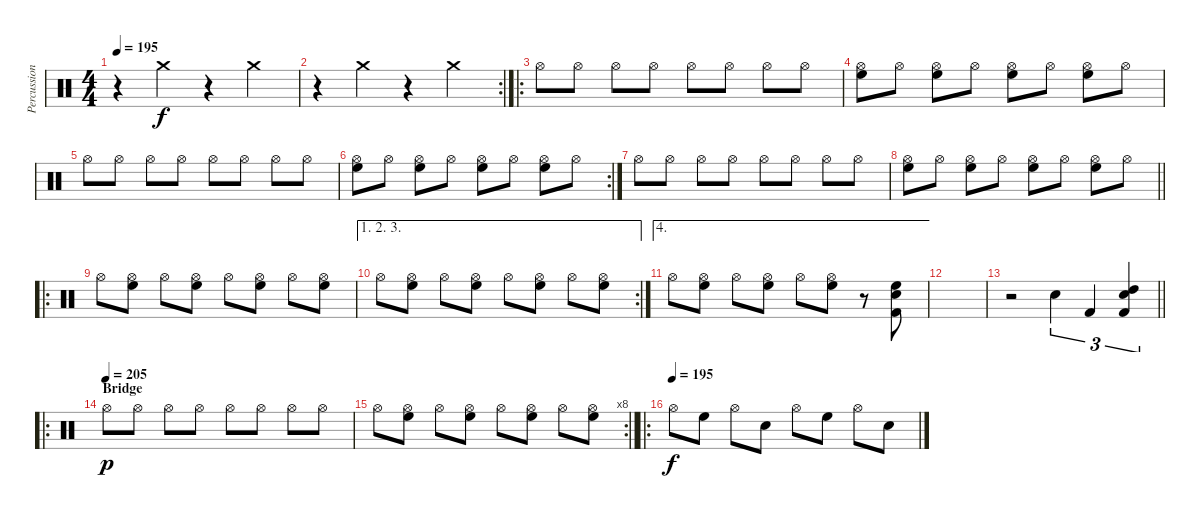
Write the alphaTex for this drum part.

\track ("Percussion" "Percussion") {instrument percussion}
\staff {score}
\articulation defaults
\ts (4 4)
\tempo 195
\clef neutral
\ks c
r.4{dy f} "Crash medium (hit)".4 r.4 "Crash medium (hit)".4 |
\rc 2
r.4 "Crash medium (hit)".4 r.4 "Crash medium (hit)".4 |
\ro "Hi-Hat (open)".8 "Hi-Hat (open)".8 "Hi-Hat (open)".8 "Hi-Hat (open)".8 "Hi-Hat (open)".8 "Hi-Hat (open)".8 "Hi-Hat (open)".8 "Hi-Hat (open)".8
|
("High Floor Tom (hit)" "Hi-Hat (open)").8 "Hi-Hat (open)".8 ("High Floor Tom (hit)" "Hi-Hat (open)").8 "Hi-Hat (open)".8 ("High Floor Tom (hit)" "Hi-Hat (open)").8 "Hi-Hat (open)".8 ("High Floor Tom (hit)" "Hi-Hat (open)").8 "Hi-Hat (open)".8 |
"Hi-Hat (open)".8 "Hi-Hat (open)".8 "Hi-Hat (open)".8 "Hi-Hat (open)".8 "Hi-Hat (open)".8 "Hi-Hat (open)".8 "Hi-Hat (open)".8 "Hi-Hat (open)".8 |
\rc 2
("High Floor Tom (hit)" "Hi-Hat (open)").8 "Hi-Hat (open)".8 ("High Floor Tom (hit)" "Hi-Hat (open)").8 "Hi-Hat (open)".8 ("High Floor Tom (hit)" "Hi-Hat (open)").8 "Hi-Hat (open)".8 ("High Floor Tom (hit)" "Hi-Hat (open)").8 "Hi-Hat (open)".8 |
"Hi-Hat (open)".8 "Hi-Hat (open)".8 "Hi-Hat (open)".8 "Hi-Hat (open)".8 "Hi-Hat (open)".8 "Hi-Hat (open)".8 "Hi-Hat (open)".8 "Hi-Hat (open)".8 |
\barLineRight lightlight
("High Floor Tom (hit)" "Hi-Hat (open)").8 "Hi-Hat (open)".8 ("High Floor Tom (hit)" "Hi-Hat (open)").8 "Hi-Hat (open)".8 ("High Floor Tom (hit)" "Hi-Hat (open)").8 "Hi-Hat (open)".8 ("High Floor Tom (hit)" "Hi-Hat (open)").8 "Hi-Hat (open)".8 |
\ro "Hi-Hat (open)".8
("High Floor Tom (hit)" "Hi-Hat (open)").8 "Hi-Hat (open)".8 ("High Floor Tom (hit)" "Hi-Hat (open)").8 "Hi-Hat (open)".8 ("High Floor Tom (hit)" "Hi-Hat (open)").8 "Hi-Hat (open)".8 ("High Floor Tom (hit)" "Hi-Hat (open)").8 |
\ae (1 2 3)
\rc 2 "Hi-Hat (open)".8
("High Floor Tom (hit)" "Hi-Hat (open)").8 "Hi-Hat (open)".8 ("High Floor Tom (hit)" "Hi-Hat (open)").8 "Hi-Hat (open)".8 ("High Floor Tom (hit)" "Hi-Hat (open)").8 "Hi-Hat (open)".8 ("High Floor Tom (hit)" "Hi-Hat (open)").8 |
\ae 4 "Hi-Hat (open)".8
("High Floor Tom (hit)" "Hi-Hat (open)").8 "Hi-Hat (open)".8 ("High Floor Tom (hit)" "Hi-Hat (open)").8 "Hi-Hat (open)".8 ("High Floor Tom (hit)" "Hi-Hat (open)").8 r.8 ("Kick (hit) 2" "Snare (hit) 2" "High Floor Tom (hit)").8 |
|
\barLineRight lightlight
r.2 "Snare (hit) 2".4{tu (3 2)} "Kick (hit) 2".4{tu (3 2)} ("Kick (hit) 2" "Snare (hit) 2" "High Tom (hit)").4{tu (3 2)} |
\ro
\section ("" "Bridge")
\tempo (205)
"Hi-Hat (open)".8{dy p} "Hi-Hat (open)".8 "Hi-Hat (open)".8 "Hi-Hat (open)".8 "Hi-Hat (open)".8 "Hi-Hat (open)".8 "Hi-Hat (open)".8 "Hi-Hat (open)".8 |
\rc 8
\barLineRight lightlight "Hi-Hat (open)".8
("High Floor Tom (hit)" "Hi-Hat (open)").8 "Hi-Hat (open)".8 ("High Floor Tom (hit)" "Hi-Hat (open)").8 "Hi-Hat (open)".8 ("High Floor Tom (hit)" "Hi-Hat (open)").8 "Hi-Hat (open)".8 ("High Floor Tom (hit)" "Hi-Hat (open)").8 |
\ro
\tempo (195)
"Hi-Hat (open)".8{dy f} "High Floor Tom (hit)".8 "Hi-Hat (open)".8 "Snare (hit) 2".8 "Hi-Hat (open)".8 "High Floor Tom (hit)".8 "Hi-Hat (open)".8 "Snare (hit) 2".8
